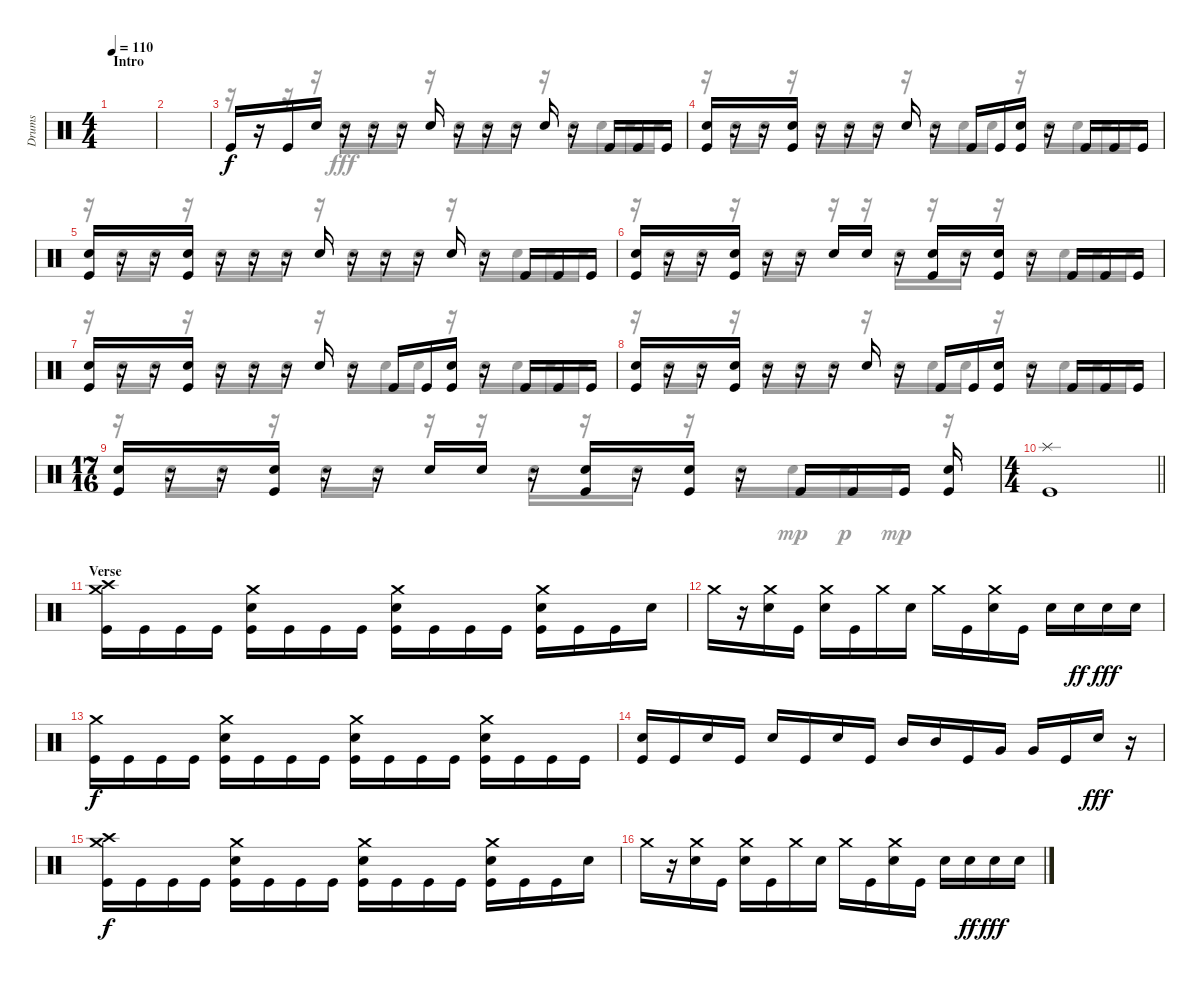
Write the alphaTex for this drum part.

\track ("Drums" "Drums") {instrument percussion}
\staff {score}
\articulation defaults
\voice
\ts (4 4)
\section ("" "Intro")
\tempo 110
\clef neutral
\ks c
|
|
"Kick (hit)".16 r.16 "Kick (hit)".16 "Snare (hit) 2".16 r.16 r.16 r.16 "Snare (hit) 2".16 r.16 r.16 r.16 "Snare (hit) 2".16 r.16 "Kick (hit)".16 "Kick (hit)".16 "Kick (hit)".16 |
("Kick (hit)" "Snare (hit) 2").16 r.16 r.16 ("Snare (hit) 2" "Kick (hit)").16 r.16 r.16 r.16 "Snare (hit) 2".16 r.16 "Kick (hit)".16 "Kick (hit)".16 ("Kick (hit)" "Snare (hit) 2").16 r.16 "Kick (hit)".16 "Kick (hit)".16 "Kick (hit)".16 |
("Kick (hit)" "Snare (hit) 2").16 r.16 r.16 ("Snare (hit) 2" "Kick (hit)").16 r.16 r.16 r.16 "Snare (hit) 2".16 r.16 r.16 r.16 "Snare (hit) 2".16 r.16 "Kick (hit)".16 "Kick (hit)".16 "Kick (hit)".16 |
("Snare (hit) 2" "Kick (hit)").16 r.16 r.16 ("Snare (hit) 2" "Kick (hit)").16 r.16 r.16 "Snare (hit) 2".16 "Snare (hit) 2".16 r.16 ("Snare (hit) 2" "Kick (hit)").16 r.16 ("Kick (hit)" "Snare (hit) 2").16 r.16 "Kick (hit)".16 "Kick (hit)".16 "Kick (hit)".16 |
("Kick (hit)" "Snare (hit) 2").16 r.16 r.16 ("Snare (hit) 2" "Kick (hit)").16 r.16 r.16 r.16 "Snare (hit) 2".16 r.16 "Kick (hit)".16 "Kick (hit)".16 ("Kick (hit)" "Snare (hit) 2").16 r.16 "Kick (hit)".16 "Kick (hit)".16 "Kick (hit)".16 |
("Kick (hit)" "Snare (hit) 2").16 r.16 r.16 ("Snare (hit) 2" "Kick (hit)").16 r.16 r.16 r.16 "Snare (hit) 2".16 r.16 "Kick (hit)".16 "Kick (hit)".16 ("Kick (hit)" "Snare (hit) 2").16 r.16 "Kick (hit)".16 "Kick (hit)".16 "Kick (hit)".16 |
\ts (17 16)
("Snare (hit) 2" "Kick (hit)").16 r.16 r.16 ("Snare (hit) 2" "Kick (hit)").16 r.16 r.16 "Snare (hit) 2".16 "Snare (hit) 2".16 r.16 ("Snare (hit) 2" "Kick (hit)").16 r.16 ("Kick (hit)" "Snare (hit) 2").16 r.16 "Kick (hit)".16 "Kick (hit)".16 "Kick (hit)".16 ("Kick (hit)" "Snare (hit) 2").16 |
\ts (4 4)
\barLineRight lightlight
("Kick (hit)" "Splash (hit)").1 |
\section ("" "Verse")
("Kick (hit)" "Crash medium (hit)" "Crash high (hit)").16 "Kick (hit)".16 "Kick (hit)".16 "Kick (hit)".16 ("Kick (hit)" "Snare (hit) 2" "Crash medium (hit)").16 "Kick (hit)".16 "Kick (hit)".16 "Kick (hit)".16 ("Kick (hit)" "Snare (hit) 2" "Crash medium (hit)").16 "Kick (hit)".16 "Kick (hit)".16 "Kick (hit)".16 ("Kick (hit)" "Snare (hit) 2" "Crash medium (hit)").16 "Kick (hit)".16 "Kick (hit)".16 "Snare (hit) 2".16 |
"Crash medium (hit)".16 r.16 ("Crash medium (hit)" "Snare (hit) 2").16 "Kick (hit)".16 ("Snare (hit) 2" "Crash medium (hit)").16 "Kick (hit)".16 "Crash medium (hit)".16 "Snare (hit) 2".16 "Crash medium (hit)".16 "Kick (hit)".16 ("Snare (hit) 2" "Crash medium (hit)").16 "Kick (hit)".16 "Snare (hit) 2".16 "Snare (hit) 2".16{dy ff} "Snare (hit) 2".16{dy fff} "Snare (hit) 2".16 |
("Kick (hit)" "Crash medium (hit)").16{dy f} "Kick (hit)".16 "Kick (hit)".16 "Kick (hit)".16 ("Kick (hit)" "Snare (hit) 2" "Crash medium (hit)").16 "Kick (hit)".16 "Kick (hit)".16 "Kick (hit)".16 ("Kick (hit)" "Snare (hit) 2" "Crash medium (hit)").16 "Kick (hit)".16 "Kick (hit)".16 "Kick (hit)".16 ("Kick (hit)" "Snare (hit) 2" "Crash medium (hit)").16 "Kick (hit)".16 "Kick (hit)".16 "Kick (hit)".16 |
("Kick (hit)" "Snare (hit) 2").16 "Kick (hit)".16 "Snare (hit) 2".16 "Kick (hit)".16 "Snare (hit) 2".16 "Kick (hit)".16 "Snare (hit) 2".16 "Kick (hit)".16 "Mid Tom (hit)".16 "Mid Tom (hit)".16 "Kick (hit)".16 "Very Low Tom (hit)".16 "Very Low Tom (hit)".16 "Kick (hit)".16 "Snare (hit) 2".16{dy fff} r.16 |
("Kick (hit)" "Crash medium (hit)" "Crash high (hit)").16{dy f} "Kick (hit)".16 "Kick (hit)".16 "Kick (hit)".16 ("Kick (hit)" "Snare (hit) 2" "Crash medium (hit)").16 "Kick (hit)".16 "Kick (hit)".16 "Kick (hit)".16 ("Kick (hit)" "Snare (hit) 2" "Crash medium (hit)").16 "Kick (hit)".16 "Kick (hit)".16 "Kick (hit)".16 ("Kick (hit)" "Snare (hit) 2" "Crash medium (hit)").16 "Kick (hit)".16 "Kick (hit)".16 "Snare (hit) 2".16 |
"Crash medium (hit)".16 r.16 ("Crash medium (hit)" "Snare (hit) 2").16 "Kick (hit)".16 ("Snare (hit) 2" "Crash medium (hit)").16 "Kick (hit)".16 "Crash medium (hit)".16 "Snare (hit) 2".16 "Crash medium (hit)".16 "Kick (hit)".16 ("Snare (hit) 2" "Crash medium (hit)").16 "Kick (hit)".16 "Snare (hit) 2".16 "Snare (hit) 2".16{dy ff} "Snare (hit) 2".16{dy fff} "Snare (hit) 2".16
\voice
\clef neutral
\ottava regular
\simile none
\ks c
|
|
r.16 r.16 r.16 r.16 "Snare (hit) 2".16 "Snare (hit) 2".16 "Snare (hit) 2".16 r.16 "Snare (hit) 2".16 "Snare (hit) 2".16 "Snare (hit) 2".16 r.16 "Snare (hit) 2".16 "Snare (hit) 2".16 "Snare (hit) 2".16 "Snare (hit) 2".16 |
r.16 "Snare (hit) 2".16 "Snare (hit) 2".16 r.16 "Snare (hit) 2".16 "Snare (hit) 2".16 "Snare (hit) 2".16 r.16 "Snare (hit) 2".16 "Snare (hit) 2".16 "Snare (hit) 2".16 r.16 "Snare (hit) 2".16 "Snare (hit) 2".16 "Snare (hit) 2".16 "Snare (hit) 2".16 |
r.16 "Snare (hit) 2".16 "Snare (hit) 2".16 r.16 "Snare (hit) 2".16 "Snare (hit) 2".16 "Snare (hit) 2".16 r.16 "Snare (hit) 2".16 "Snare (hit) 2".16 "Snare (hit) 2".16 r.16 "Snare (hit) 2".16 "Snare (hit) 2".16 "Snare (hit) 2".16 "Snare (hit) 2".16 |
r.16 "Snare (hit) 2".16 "Snare (hit) 2".16 r.16 "Snare (hit) 2".16 "Snare (hit) 2".16 r.16 r.16 "Snare (hit) 2".16 r.16 "Snare (hit) 2".16 r.16 "Snare (hit) 2".16 "Snare (hit) 2".16 "Snare (hit) 2".16 "Snare (hit) 2".16 |
r.16 "Snare (hit) 2".16 "Snare (hit) 2".16 r.16 "Snare (hit) 2".16 "Snare (hit) 2".16 "Snare (hit) 2".16 r.16 "Snare (hit) 2".16 "Snare (hit) 2".16 "Snare (hit) 2".16 r.16 "Snare (hit) 2".16 "Snare (hit) 2".16 "Snare (hit) 2".16 "Snare (hit) 2".16 |
r.16 "Snare (hit) 2".16 "Snare (hit) 2".16 r.16 "Snare (hit) 2".16 "Snare (hit) 2".16 "Snare (hit) 2".16 r.16 "Snare (hit) 2".16 "Snare (hit) 2".16 "Snare (hit) 2".16 r.16 "Snare (hit) 2".16 "Snare (hit) 2".16 "Snare (hit) 2".16 "Snare (hit) 2".16 |
r.16 "Snare (hit) 2".16 "Snare (hit) 2".16 r.16 "Snare (hit) 2".16 "Snare (hit) 2".16 r.16 r.16 "Snare (hit) 2".16 r.16 "Snare (hit) 2".16 r.16 "Snare (hit) 2".16 "Snare (hit) 2".16{dy mp} "Snare (hit) 2".16{dy p} "Snare (hit) 2".16{dy mp} r.16 |
\barLineRight lightlight
|
|
|
|
|
|
